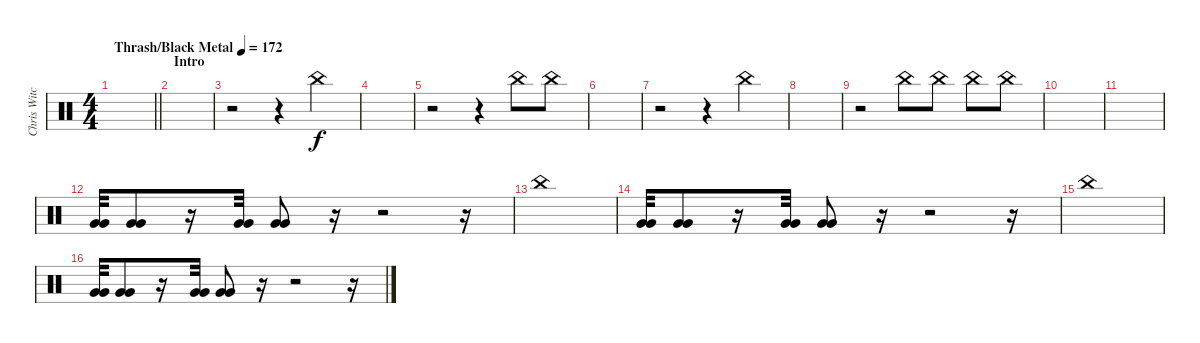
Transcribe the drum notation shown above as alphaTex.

\track ("Chris Witchhunter" "Chris Witc") {instrument percussion}
\staff {score}
\articulation defaults
\ts (4 4)
\tempo (172 "Thrash/Black Metal")
\clef neutral
\barLineRight lightlight
\ks c
|
\section ("" "Intro")
|
r.2 r.4 "China (hit)".4 |
|
r.2 r.4 "China (hit)".8 "China (hit)".8 |
|
r.2 r.4 "China (hit)".4 |
|
r.2 "China (hit)".8 "China (hit)".8 "China (hit)".8 "China (hit)".8 |
|
|
("Very Low Tom (hit)" "Very Low Tom (hit)").32 ("Very Low Tom (hit)" "Very Low Tom (hit)").8 r.16 ("Very Low Tom (hit)" "Very Low Tom (hit)").32 ("Very Low Tom (hit)" "Very Low Tom (hit)").8 r.16 r.2 r.16 |
"China (hit)".1 |
("Very Low Tom (hit)" "Very Low Tom (hit)").32 ("Very Low Tom (hit)" "Very Low Tom (hit)").8 r.16 ("Very Low Tom (hit)" "Very Low Tom (hit)").32 ("Very Low Tom (hit)" "Very Low Tom (hit)").8 r.16 r.2 r.16 |
"China (hit)".1 |
("Very Low Tom (hit)" "Very Low Tom (hit)").32 ("Very Low Tom (hit)" "Very Low Tom (hit)").8 r.16 ("Very Low Tom (hit)" "Very Low Tom (hit)").32 ("Very Low Tom (hit)" "Very Low Tom (hit)").8 r.16 r.2 r.16
